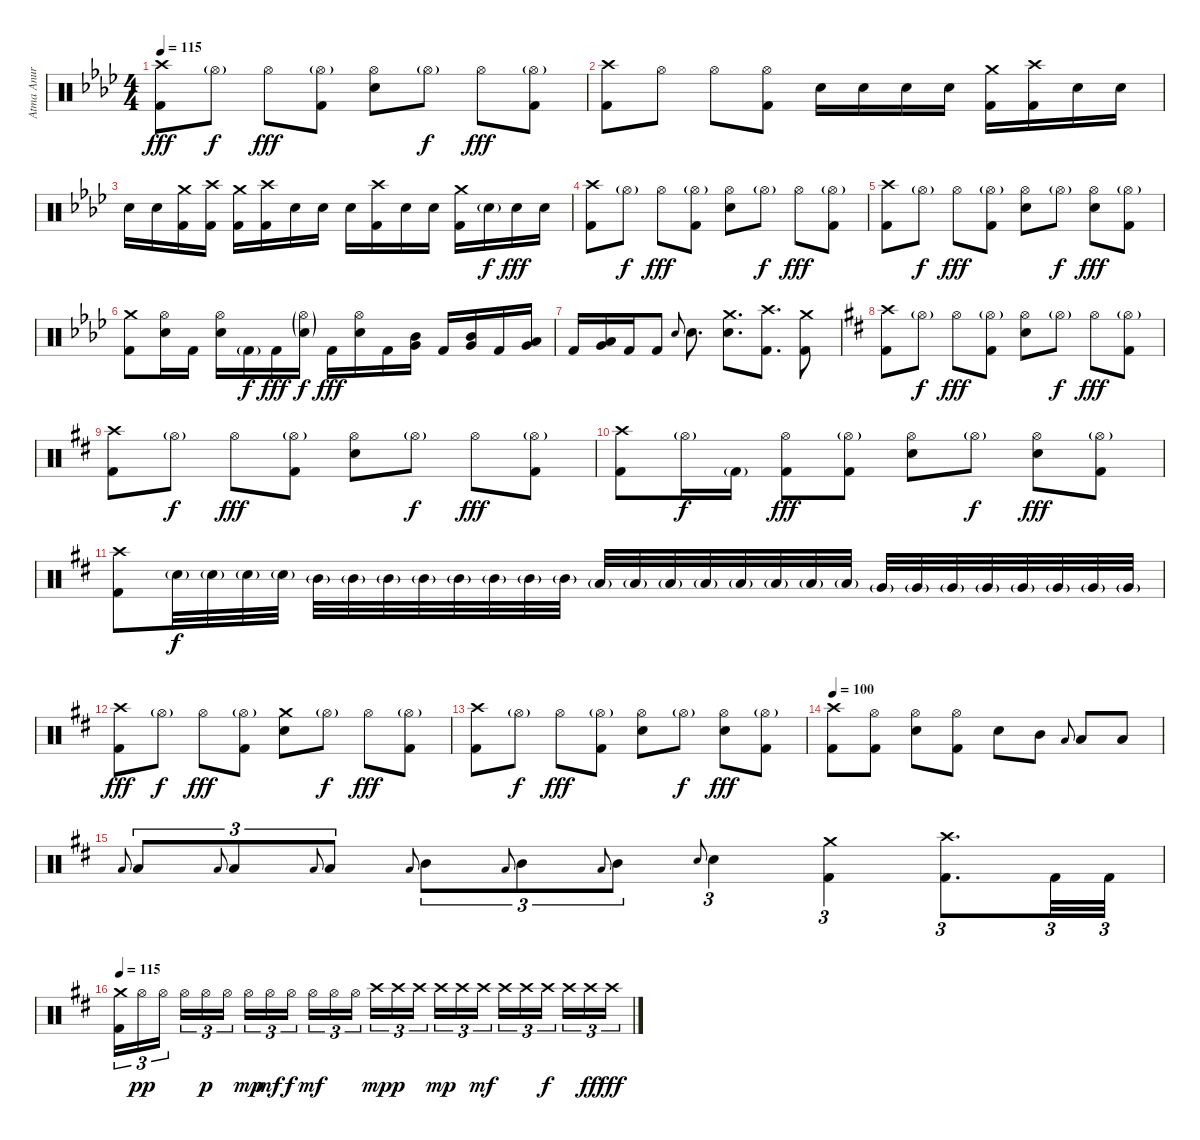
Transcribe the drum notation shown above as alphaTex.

\track ("Atma Anur" "Atma Anur") {instrument percussion}
\staff {score}
\articulation defaults
\ts (4 4)
\tempo 115
\clef neutral
\ks fminor
("Crash high (hit)" "Kick (hit) 2").8{dy fff} "Hi-Hat (open)"{g}.8{dy f} "Hi-Hat (open)".8{dy fff} ("Hi-Hat (open)"{g} "Kick (hit) 2").8 ("Hi-Hat (open)" "Electric Snare (hit)").8 "Hi-Hat (open)"{g}.8{dy f} "Hi-Hat (open)".8{dy fff} ("Hi-Hat (open)"{g} "Kick (hit) 2").8 |
("Crash high (hit)" "Kick (hit) 2").8 "Hi-Hat (open)".8 "Hi-Hat (open)".8 ("Hi-Hat (open)" "Kick (hit) 2").8 "Electric Snare (hit)".16 "Electric Snare (hit)".16 "Electric Snare (hit)".16 "Electric Snare (hit)".16 ("Crash medium (hit)" "Kick (hit) 2").16 ("Crash high (hit)" "Kick (hit) 2").16 "Electric Snare (hit)".16 "Electric Snare (hit)".16 |
"Electric Snare (hit)".16 "Electric Snare (hit)".16 ("Crash medium (hit)" "Kick (hit) 2").16 ("Crash high (hit)" "Kick (hit) 2").16 ("Crash medium (hit)" "Kick (hit) 2").16 ("Crash high (hit)" "Kick (hit) 2").16 "Electric Snare (hit)".16 "Electric Snare (hit)".16 "Electric Snare (hit)".16 ("Crash high (hit)" "Kick (hit) 2").16 "Electric Snare (hit)".16 "Electric Snare (hit)".16 ("Crash medium (hit)" "Kick (hit) 2").16 "Electric Snare (hit)"{g}.16{dy f} "Electric Snare (hit)".16{dy fff} "Electric Snare (hit)".16 |
("Crash high (hit)" "Kick (hit) 2").8 "Hi-Hat (open)"{g}.8{dy f} "Hi-Hat (open)".8{dy fff} ("Hi-Hat (open)"{g} "Kick (hit) 2").8 ("Hi-Hat (open)" "Electric Snare (hit)").8 "Hi-Hat (open)"{g}.8{dy f} "Hi-Hat (open)".8{dy fff} ("Hi-Hat (open)"{g} "Kick (hit) 2").8 |
("Crash high (hit)" "Kick (hit) 2").8 "Hi-Hat (open)"{g}.8{dy f} "Hi-Hat (open)".8{dy fff} ("Hi-Hat (open)"{g} "Kick (hit) 2").8 ("Hi-Hat (open)" "Electric Snare (hit)").8 "Hi-Hat (open)"{g}.8{dy f} ("Hi-Hat (open)" "Electric Snare (hit)").8{dy fff} ("Hi-Hat (open)"{g} "Kick (hit) 2").8 |
("Crash medium (hit)" "Kick (hit) 2").8 ("Hi-Hat (open)" "Electric Snare (hit)").16 "Kick (hit) 2".16 ("Hi-Hat (open)" "Electric Snare (hit)").16 "Kick (hit) 2"{g}.16{dy f} "Kick (hit) 2".16{dy fff} ("Hi-Hat (open)"{g} "Electric Snare (hit)"{g}).16{dy f} "Kick (hit) 2".16{dy fff} ("Hi-Hat (open)" "Electric Snare (hit)").16 "Kick (hit) 2".16 ("Mid Tom (hit)" "Very Low Tom (hit)").16 "Kick (hit) 2".16 ("Mid Tom (hit)" "Very Low Tom (hit)").16 "Kick (hit) 2".16 ("Low Tom (hit)" "Very Low Tom (hit)").16 |
"Kick (hit) 2".16 ("Low Tom (hit)" "Very Low Tom (hit)").16 "Kick (hit) 2".16 "Kick (hit) 2".8 "Electric Snare (hit)".8{gr onbeat} "Electric Snare (hit)".8{d} ("Crash medium (hit)" "Electric Snare (hit)").8{d} ("Crash high (hit)" "Kick (hit) 2").8{d} ("Crash medium (hit)" "Kick (hit) 2").8 |
\ks bminor
("Crash high (hit)" "Kick (hit) 2").8 "Hi-Hat (open)"{g}.8{dy f} "Hi-Hat (open)".8{dy fff} ("Hi-Hat (open)"{g} "Kick (hit) 2").8 ("Hi-Hat (open)" "Electric Snare (hit)").8 "Hi-Hat (open)"{g}.8{dy f} "Hi-Hat (open)".8{dy fff} ("Hi-Hat (open)"{g} "Kick (hit) 2").8 |
("Crash high (hit)" "Kick (hit) 2").8 "Hi-Hat (open)"{g}.8{dy f} "Hi-Hat (open)".8{dy fff} ("Hi-Hat (open)"{g} "Kick (hit) 2").8 ("Hi-Hat (open)" "Electric Snare (hit)").8 "Hi-Hat (open)"{g}.8{dy f} "Hi-Hat (open)".8{dy fff} ("Hi-Hat (open)"{g} "Kick (hit) 2").8 |
("Crash high (hit)" "Kick (hit) 2").8 "Hi-Hat (open)"{g}.16{dy f} "Kick (hit) 2"{g}.16 ("Hi-Hat (open)" "Kick (hit) 2").8{dy fff} ("Hi-Hat (open)"{g} "Kick (hit) 2").8 ("Hi-Hat (open)" "Electric Snare (hit)").8 "Hi-Hat (open)"{g}.8{dy f} ("Hi-Hat (open)" "Electric Snare (hit)").8{dy fff} ("Hi-Hat (open)"{g} "Kick (hit) 2").8 |
("Crash high (hit)" "Kick (hit) 2").8 "Electric Snare (hit)"{g}.32{dy f} "Electric Snare (hit)"{g}.32 "Electric Snare (hit)"{g}.32 "Electric Snare (hit)"{g}.32 "Mid Tom (hit)"{g}.32 "Mid Tom (hit)"{g}.32 "Mid Tom (hit)"{g}.32 "Mid Tom (hit)"{g}.32 "Mid Tom (hit)"{g}.32 "Mid Tom (hit)"{g}.32 "Mid Tom (hit)"{g}.32 "Mid Tom (hit)"{g}.32 "Low Tom (hit)"{g}.32 "Low Tom (hit)"{g}.32 "Low Tom (hit)"{g}.32 "Low Tom (hit)"{g}.32 "Low Tom (hit)"{g}.32 "Low Tom (hit)"{g}.32 "Low Tom (hit)"{g}.32 "Low Tom (hit)"{g}.32 "Very Low Tom (hit)"{g}.32 "Very Low Tom (hit)"{g}.32 "Very Low Tom (hit)"{g}.32 "Very Low Tom (hit)"{g}.32 "Very Low Tom (hit)"{g}.32 "Very Low Tom (hit)"{g}.32 "Very Low Tom (hit)"{g}.32 "Very Low Tom (hit)"{g}.32 |
("Crash high (hit)" "Kick (hit) 2").8{dy fff} "Hi-Hat (open)"{g}.8{dy f} "Hi-Hat (open)".8{dy fff} ("Hi-Hat (open)"{g} "Kick (hit) 2").8 ("Crash medium (hit)" "Electric Snare (hit)").8 "Hi-Hat (open)"{g}.8{dy f} "Hi-Hat (open)".8{dy fff} ("Hi-Hat (open)"{g} "Kick (hit) 2").8 |
("Crash high (hit)" "Kick (hit) 2").8 "Hi-Hat (open)"{g}.8{dy f} "Hi-Hat (open)".8{dy fff} ("Hi-Hat (open)"{g} "Kick (hit) 2").8 ("Hi-Hat (open)" "Electric Snare (hit)").8 "Hi-Hat (open)"{g}.8{dy f} ("Hi-Hat (open)" "Electric Snare (hit)").8{dy fff} ("Hi-Hat (open)"{g} "Kick (hit) 2").8 |
\tempo 100
("Crash high (hit)" "Kick (hit) 2").8 ("Hi-Hat (open)" "Kick (hit) 2").8 ("Hi-Hat (open)" "Electric Snare (hit)").8 ("Hi-Hat (open)" "Kick (hit) 2").8 "Electric Snare (hit)".8 "Mid Tom (hit)".8 "Low Tom (hit)".8{gr onbeat} "Low Tom (hit)".8 "Low Tom (hit)".8 |
"Low Tom (hit)".8{gr onbeat} "Low Tom (hit)".8{tu (3 2)} "Low Tom (hit)".8{gr onbeat} "Low Tom (hit)".8{tu (3 2)} "Low Tom (hit)".8{gr onbeat} "Low Tom (hit)".8{tu (3 2)} "Low Tom (hit)".8{gr onbeat} "Mid Tom (hit)".8{tu (3 2)} "Low Tom (hit)".8{gr onbeat} "Mid Tom (hit)".8{tu (3 2)} "Low Tom (hit)".8{gr onbeat} "Mid Tom (hit)".8{tu (3 2)} "Electric Snare (hit)".8{gr onbeat} "Electric Snare (hit)".4{tu (3 2)} ("Crash medium (hit)" "Kick (hit) 2").4{tu (3 2)} ("Crash high (hit)" "Kick (hit) 2").8{d tu (3 2)} "Kick (hit) 2".32{tu (3 2)} "Kick (hit) 2".32{tu (3 2)} |
\tempo 115
("Crash medium (hit)" "Kick (hit) 2").16{tu (3 2)} "Hi-Hat (open)".16{tu (3 2) dy pp} "Hi-Hat (open)".16{tu (3 2) beam splitsecondary} "Hi-Hat (open)".16{tu (3 2)} "Hi-Hat (open)".16{tu (3 2) dy p} "Hi-Hat (open)".16{tu (3 2)} "Hi-Hat (open)".16{tu (3 2) dy mp} "Hi-Hat (open)".16{tu (3 2) dy mf} "Hi-Hat (open)".16{tu (3 2) dy f beam splitsecondary} "Hi-Hat (open)".16{tu (3 2) dy mf} "Hi-Hat (open)".16{tu (3 2)} "Hi-Hat (open)".16{tu (3 2)} "Crash high (hit)".16{tu (3 2) dy mp} "Crash high (hit)".16{tu (3 2) dy p} "Crash high (hit)".16{tu (3 2) beam splitsecondary} "Crash high (hit)".16{tu (3 2) dy mp} "Crash high (hit)".16{tu (3 2)} "Crash high (hit)".16{tu (3 2) dy mf} "Crash high (hit)".16{tu (3 2)} "Crash high (hit)".16{tu (3 2)} "Crash high (hit)".16{tu (3 2) dy f beam splitsecondary} "Crash high (hit)".16{tu (3 2)} "Crash high (hit)".16{tu (3 2) dy ff} "Crash high (hit)".16{tu (3 2) dy fff}
